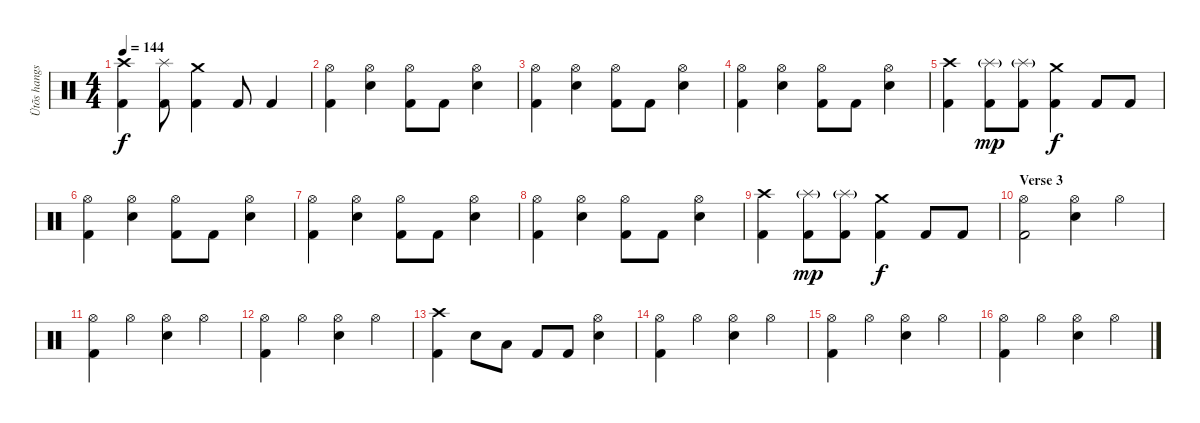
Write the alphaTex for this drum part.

\track ("Ütõs hangszer" "Ütõs hangs") {instrument percussion}
\staff {score}
\articulation defaults
\ts (4 4)
\tempo 144
\clef neutral
\ks c
("Crash high (hit)" "Kick (hit) 2").4{dy f} ("Splash (hit)" "Kick (hit) 2").8 ("Crash medium (hit)" "Kick (hit) 2").4 "Kick (hit) 2".8 "Kick (hit) 2".4 |
("Hi-Hat (open)" "Kick (hit) 2").4 ("Hi-Hat (open)" "Snare (hit) 2").4 ("Hi-Hat (open)" "Kick (hit) 2").8 "Kick (hit) 2".8 ("Hi-Hat (open)" "Snare (hit) 2").4 |
("Hi-Hat (open)" "Kick (hit) 2").4 ("Hi-Hat (open)" "Snare (hit) 2").4 ("Hi-Hat (open)" "Kick (hit) 2").8 "Kick (hit) 2".8 ("Hi-Hat (open)" "Snare (hit) 2").4 |
("Hi-Hat (open)" "Kick (hit) 2").4 ("Hi-Hat (open)" "Snare (hit) 2").4 ("Hi-Hat (open)" "Kick (hit) 2").8 "Kick (hit) 2".8 ("Hi-Hat (open)" "Snare (hit) 2").4 |
("Crash high (hit)" "Kick (hit) 2").4 ("Splash (hit)"{g} "Kick (hit) 2").8{dy mp} ("Splash (hit)"{g} "Kick (hit) 2").8 ("Crash medium (hit)" "Kick (hit) 2").4{dy f} "Kick (hit) 2".8 "Kick (hit) 2".8 |
("Hi-Hat (open)" "Kick (hit) 2").4 ("Hi-Hat (open)" "Snare (hit) 2").4 ("Hi-Hat (open)" "Kick (hit) 2").8 "Kick (hit) 2".8 ("Hi-Hat (open)" "Snare (hit) 2").4 |
("Hi-Hat (open)" "Kick (hit) 2").4 ("Hi-Hat (open)" "Snare (hit) 2").4 ("Hi-Hat (open)" "Kick (hit) 2").8 "Kick (hit) 2".8 ("Hi-Hat (open)" "Snare (hit) 2").4 |
("Hi-Hat (open)" "Kick (hit) 2").4 ("Hi-Hat (open)" "Snare (hit) 2").4 ("Hi-Hat (open)" "Kick (hit) 2").8 "Kick (hit) 2".8 ("Hi-Hat (open)" "Snare (hit) 2").4 |
("Crash high (hit)" "Kick (hit) 2").4 ("Splash (hit)"{g} "Kick (hit) 2").8{dy mp} ("Splash (hit)"{g} "Kick (hit) 2").8 ("Crash medium (hit)" "Kick (hit) 2").4{dy f} "Kick (hit) 2".8 "Kick (hit) 2".8 |
\section ("" "Verse 3")
("Hi-Hat (open)" "Kick (hit) 2").2 ("Hi-Hat (open)" "Electric Snare (hit)").4 "Hi-Hat (open)".4 |
("Hi-Hat (open)" "Kick (hit) 2").4 "Hi-Hat (open)".4 ("Hi-Hat (open)" "Electric Snare (hit)").4 "Hi-Hat (open)".4 |
("Hi-Hat (open)" "Kick (hit) 2").4 "Hi-Hat (open)".4 ("Hi-Hat (open)" "Electric Snare (hit)").4 "Hi-Hat (open)".4 |
("Crash high (hit)" "Kick (hit) 2").4 "Electric Snare (hit)".8 "Low Tom (hit)".8 "Kick (hit) 2".8 "Kick (hit) 2".8 ("Hi-Hat (open)" "Electric Snare (hit)").4 |
("Hi-Hat (open)" "Kick (hit) 2").4 "Hi-Hat (open)".4 ("Hi-Hat (open)" "Electric Snare (hit)").4 "Hi-Hat (open)".4 |
("Hi-Hat (open)" "Kick (hit) 2").4 "Hi-Hat (open)".4 ("Hi-Hat (open)" "Electric Snare (hit)").4 "Hi-Hat (open)".4 |
("Hi-Hat (open)" "Kick (hit) 2").4 "Hi-Hat (open)".4 ("Hi-Hat (open)" "Electric Snare (hit)").4 "Hi-Hat (open)".4
